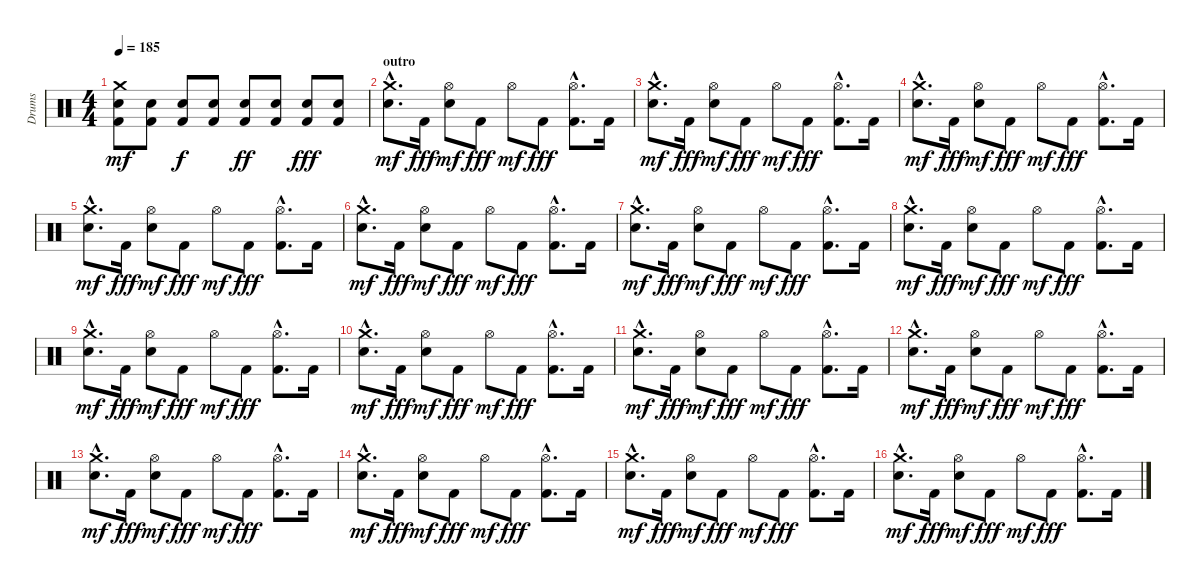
\track ("Drums" "Drums") {instrument percussion}
\staff {score}
\articulation defaults
\ts (4 4)
\tempo 185
\clef neutral
\ks c
("Crash medium (hit)" "Kick (hit) 2" "Electric Snare (hit)").8{dy mf} ("Kick (hit) 2" "Electric Snare (hit)").8 ("Kick (hit) 2" "Electric Snare (hit)").8{dy f} ("Kick (hit) 2" "Electric Snare (hit)").8 ("Kick (hit) 2" "Electric Snare (hit)").8{dy ff} ("Kick (hit) 2" "Electric Snare (hit)").8 ("Kick (hit) 2" "Electric Snare (hit)").8{dy fff} ("Kick (hit) 2" "Electric Snare (hit)").8 |
\section ("" "outro")
("Crash medium (hit)"{hac} "Electric Snare (hit)"{hac}).8{d dy mf} "Kick (hit) 2".16{dy fff} ("Hi-Hat (open)" "Electric Snare (hit)").8{dy mf} "Kick (hit) 2".8{dy fff} "Hi-Hat (open)".8{dy mf} "Kick (hit) 2".8{dy fff} ("Hi-Hat (open)"{hac} "Kick (hit) 2"{hac}).8{d} "Kick (hit) 2".16 |
("Crash medium (hit)"{hac} "Electric Snare (hit)"{hac}).8{d dy mf} "Kick (hit) 2".16{dy fff} ("Hi-Hat (open)" "Electric Snare (hit)").8{dy mf} "Kick (hit) 2".8{dy fff} "Hi-Hat (open)".8{dy mf} "Kick (hit) 2".8{dy fff} ("Hi-Hat (open)"{hac} "Kick (hit) 2"{hac}).8{d} "Kick (hit) 2".16 |
("Crash medium (hit)"{hac} "Electric Snare (hit)"{hac}).8{d dy mf} "Kick (hit) 2".16{dy fff} ("Hi-Hat (open)" "Electric Snare (hit)").8{dy mf} "Kick (hit) 2".8{dy fff} "Hi-Hat (open)".8{dy mf} "Kick (hit) 2".8{dy fff} ("Hi-Hat (open)"{hac} "Kick (hit) 2"{hac}).8{d} "Kick (hit) 2".16 |
("Crash medium (hit)"{hac} "Electric Snare (hit)"{hac}).8{d dy mf} "Kick (hit) 2".16{dy fff} ("Hi-Hat (open)" "Electric Snare (hit)").8{dy mf} "Kick (hit) 2".8{dy fff} "Hi-Hat (open)".8{dy mf} "Kick (hit) 2".8{dy fff} ("Hi-Hat (open)"{hac} "Kick (hit) 2"{hac}).8{d} "Kick (hit) 2".16 |
("Crash medium (hit)"{hac} "Electric Snare (hit)"{hac}).8{d dy mf} "Kick (hit) 2".16{dy fff} ("Hi-Hat (open)" "Electric Snare (hit)").8{dy mf} "Kick (hit) 2".8{dy fff} "Hi-Hat (open)".8{dy mf} "Kick (hit) 2".8{dy fff} ("Hi-Hat (open)"{hac} "Kick (hit) 2"{hac}).8{d} "Kick (hit) 2".16 |
("Crash medium (hit)"{hac} "Electric Snare (hit)"{hac}).8{d dy mf} "Kick (hit) 2".16{dy fff} ("Hi-Hat (open)" "Electric Snare (hit)").8{dy mf} "Kick (hit) 2".8{dy fff} "Hi-Hat (open)".8{dy mf} "Kick (hit) 2".8{dy fff} ("Hi-Hat (open)"{hac} "Kick (hit) 2"{hac}).8{d} "Kick (hit) 2".16 |
("Crash medium (hit)"{hac} "Electric Snare (hit)"{hac}).8{d dy mf} "Kick (hit) 2".16{dy fff} ("Hi-Hat (open)" "Electric Snare (hit)").8{dy mf} "Kick (hit) 2".8{dy fff} "Hi-Hat (open)".8{dy mf} "Kick (hit) 2".8{dy fff} ("Hi-Hat (open)"{hac} "Kick (hit) 2"{hac}).8{d} "Kick (hit) 2".16 |
("Crash medium (hit)"{hac} "Electric Snare (hit)"{hac}).8{d dy mf} "Kick (hit) 2".16{dy fff} ("Hi-Hat (open)" "Electric Snare (hit)").8{dy mf} "Kick (hit) 2".8{dy fff} "Hi-Hat (open)".8{dy mf} "Kick (hit) 2".8{dy fff} ("Hi-Hat (open)"{hac} "Kick (hit) 2"{hac}).8{d} "Kick (hit) 2".16 |
("Crash medium (hit)"{hac} "Electric Snare (hit)"{hac}).8{d dy mf} "Kick (hit) 2".16{dy fff} ("Hi-Hat (open)" "Electric Snare (hit)").8{dy mf} "Kick (hit) 2".8{dy fff} "Hi-Hat (open)".8{dy mf} "Kick (hit) 2".8{dy fff} ("Hi-Hat (open)"{hac} "Kick (hit) 2"{hac}).8{d} "Kick (hit) 2".16 |
("Crash medium (hit)"{hac} "Electric Snare (hit)"{hac}).8{d dy mf} "Kick (hit) 2".16{dy fff} ("Hi-Hat (open)" "Electric Snare (hit)").8{dy mf} "Kick (hit) 2".8{dy fff} "Hi-Hat (open)".8{dy mf} "Kick (hit) 2".8{dy fff} ("Hi-Hat (open)"{hac} "Kick (hit) 2"{hac}).8{d} "Kick (hit) 2".16 |
("Crash medium (hit)"{hac} "Electric Snare (hit)"{hac}).8{d dy mf} "Kick (hit) 2".16{dy fff} ("Hi-Hat (open)" "Electric Snare (hit)").8{dy mf} "Kick (hit) 2".8{dy fff} "Hi-Hat (open)".8{dy mf} "Kick (hit) 2".8{dy fff} ("Hi-Hat (open)"{hac} "Kick (hit) 2"{hac}).8{d} "Kick (hit) 2".16 |
("Crash medium (hit)"{hac} "Electric Snare (hit)"{hac}).8{d dy mf} "Kick (hit) 2".16{dy fff} ("Hi-Hat (open)" "Electric Snare (hit)").8{dy mf} "Kick (hit) 2".8{dy fff} "Hi-Hat (open)".8{dy mf} "Kick (hit) 2".8{dy fff} ("Hi-Hat (open)"{hac} "Kick (hit) 2"{hac}).8{d} "Kick (hit) 2".16 |
("Crash medium (hit)"{hac} "Electric Snare (hit)"{hac}).8{d dy mf} "Kick (hit) 2".16{dy fff} ("Hi-Hat (open)" "Electric Snare (hit)").8{dy mf} "Kick (hit) 2".8{dy fff} "Hi-Hat (open)".8{dy mf} "Kick (hit) 2".8{dy fff} ("Hi-Hat (open)"{hac} "Kick (hit) 2"{hac}).8{d} "Kick (hit) 2".16 |
("Crash medium (hit)"{hac} "Electric Snare (hit)"{hac}).8{d dy mf} "Kick (hit) 2".16{dy fff} ("Hi-Hat (open)" "Electric Snare (hit)").8{dy mf} "Kick (hit) 2".8{dy fff} "Hi-Hat (open)".8{dy mf} "Kick (hit) 2".8{dy fff} ("Hi-Hat (open)"{hac} "Kick (hit) 2"{hac}).8{d} "Kick (hit) 2".16 |
("Crash medium (hit)"{hac} "Electric Snare (hit)"{hac}).8{d dy mf} "Kick (hit) 2".16{dy fff} ("Hi-Hat (open)" "Electric Snare (hit)").8{dy mf} "Kick (hit) 2".8{dy fff} "Hi-Hat (open)".8{dy mf} "Kick (hit) 2".8{dy fff} ("Hi-Hat (open)"{hac} "Kick (hit) 2"{hac}).8{d} "Kick (hit) 2".16
